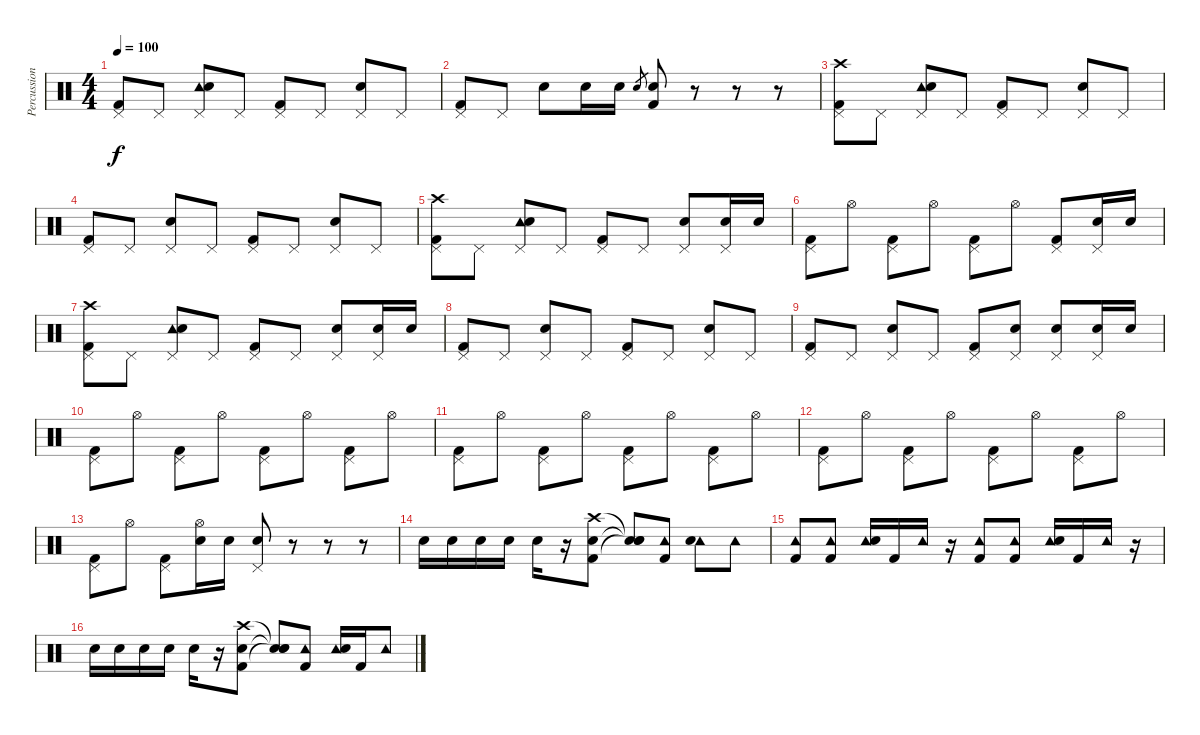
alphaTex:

\track ("Percussion" "Percussion") {instrument percussion}
\staff {score}
\articulation defaults
\ts (4 4)
\tempo 100
\clef neutral
\ks c
("Pedal Hi-Hat (hit)" "Kick (hit) 2").8{dy f} "Pedal Hi-Hat (hit)".8 ("Pedal Hi-Hat (hit)" "Tambourine (hit)" "Snare (hit) 2").8 "Pedal Hi-Hat (hit)".8 ("Pedal Hi-Hat (hit)" "Kick (hit) 2").8 "Pedal Hi-Hat (hit)".8 ("Pedal Hi-Hat (hit)" "Snare (hit) 2").8 "Pedal Hi-Hat (hit)".8 |
("Pedal Hi-Hat (hit)" "Kick (hit) 2").8 "Pedal Hi-Hat (hit)".8 "Snare (hit) 2".8 "Snare (hit) 2".16 "Snare (hit) 2".16 "Snare (hit) 2".8{gr} ("Snare (hit) 2" "Kick (hit) 2").8 r.8 r.8 r.8 |
("Pedal Hi-Hat (hit)" "Crash high (hit)" "Kick (hit) 2").8 "Pedal Hi-Hat (hit)".8 ("Pedal Hi-Hat (hit)" "Tambourine (hit)" "Snare (hit) 2").8 "Pedal Hi-Hat (hit)".8 ("Pedal Hi-Hat (hit)" "Kick (hit) 2").8 "Pedal Hi-Hat (hit)".8 ("Pedal Hi-Hat (hit)" "Snare (hit) 2").8 "Pedal Hi-Hat (hit)".8 |
("Pedal Hi-Hat (hit)" "Kick (hit) 2").8 "Pedal Hi-Hat (hit)".8 ("Pedal Hi-Hat (hit)" "Snare (hit) 2").8 "Pedal Hi-Hat (hit)".8 ("Pedal Hi-Hat (hit)" "Kick (hit) 2").8 "Pedal Hi-Hat (hit)".8 ("Pedal Hi-Hat (hit)" "Snare (hit) 2").8 "Pedal Hi-Hat (hit)".8 |
("Pedal Hi-Hat (hit)" "Crash high (hit)" "Kick (hit) 2").8 "Pedal Hi-Hat (hit)".8 ("Pedal Hi-Hat (hit)" "Tambourine (hit)" "Snare (hit) 2").8 "Pedal Hi-Hat (hit)".8 ("Pedal Hi-Hat (hit)" "Kick (hit) 2").8 "Pedal Hi-Hat (hit)".8 ("Pedal Hi-Hat (hit)" "Snare (hit) 2").8 ("Pedal Hi-Hat (hit)" "Snare (hit) 2").16 "Snare (hit) 2".16 |
("Pedal Hi-Hat (hit)" "Kick (hit) 2").8 "Hi-Hat (open)".8 ("Pedal Hi-Hat (hit)" "Kick (hit) 2").8 "Hi-Hat (open)".8 ("Pedal Hi-Hat (hit)" "Kick (hit) 2").8 "Hi-Hat (open)".8 ("Pedal Hi-Hat (hit)" "Kick (hit) 2").8 ("Pedal Hi-Hat (hit)" "Snare (hit) 2").16 "Snare (hit) 2".16 |
("Pedal Hi-Hat (hit)" "Crash high (hit)" "Kick (hit) 2").8 "Pedal Hi-Hat (hit)".8 ("Pedal Hi-Hat (hit)" "Tambourine (hit)" "Snare (hit) 2").8 "Pedal Hi-Hat (hit)".8 ("Pedal Hi-Hat (hit)" "Kick (hit) 2").8 "Pedal Hi-Hat (hit)".8 ("Pedal Hi-Hat (hit)" "Snare (hit) 2").8 ("Pedal Hi-Hat (hit)" "Snare (hit) 2").16 "Snare (hit) 2".16 |
("Pedal Hi-Hat (hit)" "Kick (hit) 2").8 "Pedal Hi-Hat (hit)".8 ("Pedal Hi-Hat (hit)" "Snare (hit) 2").8 "Pedal Hi-Hat (hit)".8 ("Pedal Hi-Hat (hit)" "Kick (hit) 2").8 "Pedal Hi-Hat (hit)".8 ("Pedal Hi-Hat (hit)" "Snare (hit) 2").8 "Pedal Hi-Hat (hit)".8 |
("Pedal Hi-Hat (hit)" "Kick (hit) 2").8 "Pedal Hi-Hat (hit)".8 ("Pedal Hi-Hat (hit)" "Snare (hit) 2").8 "Pedal Hi-Hat (hit)".8 ("Pedal Hi-Hat (hit)" "Kick (hit) 2").8 ("Pedal Hi-Hat (hit)" "Snare (hit) 2").8 ("Pedal Hi-Hat (hit)" "Snare (hit) 2").8 ("Pedal Hi-Hat (hit)" "Snare (hit) 2").16 "Snare (hit) 2".16 |
("Pedal Hi-Hat (hit)" "Kick (hit) 2").8 "Hi-Hat (open)".8 ("Pedal Hi-Hat (hit)" "Kick (hit) 2").8 "Hi-Hat (open)".8 ("Pedal Hi-Hat (hit)" "Kick (hit) 2").8 "Hi-Hat (open)".8 ("Pedal Hi-Hat (hit)" "Kick (hit) 2").8 "Hi-Hat (open)".8 |
("Pedal Hi-Hat (hit)" "Kick (hit) 2").8 "Hi-Hat (open)".8 ("Pedal Hi-Hat (hit)" "Kick (hit) 2").8 "Hi-Hat (open)".8 ("Pedal Hi-Hat (hit)" "Kick (hit) 2").8 "Hi-Hat (open)".8 ("Pedal Hi-Hat (hit)" "Kick (hit) 2").8 "Hi-Hat (open)".8 |
("Pedal Hi-Hat (hit)" "Kick (hit) 2").8 "Hi-Hat (open)".8 ("Pedal Hi-Hat (hit)" "Kick (hit) 2").8 "Hi-Hat (open)".8 ("Pedal Hi-Hat (hit)" "Kick (hit) 2").8 "Hi-Hat (open)".8 ("Pedal Hi-Hat (hit)" "Kick (hit) 2").8 "Hi-Hat (open)".8 |
("Pedal Hi-Hat (hit)" "Kick (hit) 2").8 "Hi-Hat (open)".8 ("Pedal Hi-Hat (hit)" "Kick (hit) 2").8 ("Hi-Hat (open)" "Snare (hit) 2").16 "Snare (hit) 2".16 ("Pedal Hi-Hat (hit)" "Snare (hit) 2").8 r.8 r.8 r.8 |
"Snare (hit) 2".16 "Snare (hit) 2".16 "Snare (hit) 2".16 "Snare (hit) 2".16 "Snare (hit) 2".16 r.16 ("Crash high (hit)" "Snare (hit) 2" "Kick (hit) 2").8 ("Snare (hit)"{t} "Snare (hit)"{t} "Snare (hit)"{t}).8 ("Tambourine (hit)" "Kick (hit) 2").8 ("Tambourine (hit)" "Snare (hit) 2").8 "Tambourine (hit)".8 |
("Tambourine (hit)" "Kick (hit) 2").8 ("Tambourine (hit)" "Kick (hit) 2").8 ("Tambourine (hit)" "Snare (hit) 2").16 "Kick (hit) 2".16 "Tambourine (hit)".16 r.16 ("Tambourine (hit)" "Kick (hit) 2").8 ("Tambourine (hit)" "Kick (hit) 2").8 ("Tambourine (hit)" "Snare (hit) 2").16 "Kick (hit) 2".16 "Tambourine (hit)".16 r.16 |
"Snare (hit) 2".16 "Snare (hit) 2".16 "Snare (hit) 2".16 "Snare (hit) 2".16 "Snare (hit) 2".16 r.16 ("Crash high (hit)" "Snare (hit) 2" "Kick (hit) 2").8 ("Snare (hit)"{t} "Snare (hit)"{t} "Snare (hit)"{t}).8 ("Tambourine (hit)" "Kick (hit) 2").8 ("Tambourine (hit)" "Snare (hit) 2").16 "Kick (hit) 2".16 "Tambourine (hit)".8
